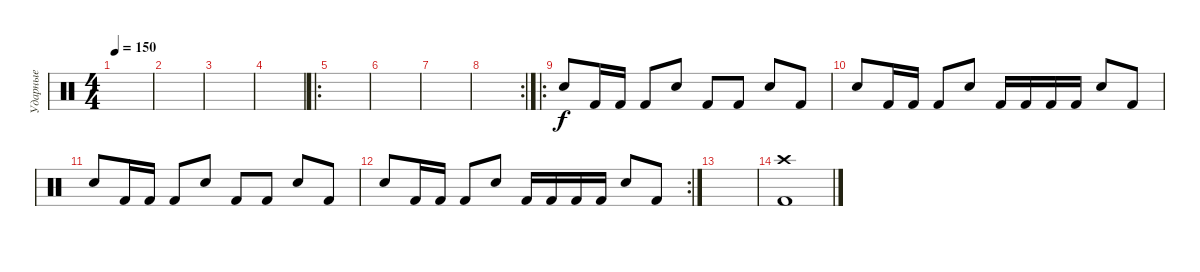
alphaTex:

\track ("Ударные" "Ударные") {instrument percussion}
\staff {score}
\articulation defaults
\ts (4 4)
\tempo 150
\clef neutral
\ks c
|
|
|
|
\ro
|
|
|
\rc 2
|
\ro "Snare (hit) 2".8 "Kick (hit) 2".16 "Kick (hit) 2".16 "Kick (hit) 2".8 "Hand Clap (hit)".8 "Kick (hit) 2".8 "Kick (hit) 2".8 "Hand Clap (hit)".8 "Kick (hit) 2".8
|
"Snare (hit) 2".8 "Kick (hit) 2".16 "Kick (hit) 2".16 "Kick (hit) 2".8 "Hand Clap (hit)".8 "Kick (hit) 2".16 "Kick (hit) 2".16 "Kick (hit) 2".16 "Kick (hit) 2".16 "Hand Clap (hit)".8 "Kick (hit) 2".8 |
"Snare (hit) 2".8 "Kick (hit) 2".16 "Kick (hit) 2".16 "Kick (hit) 2".8 "Hand Clap (hit)".8 "Kick (hit) 2".8 "Kick (hit) 2".8 "Hand Clap (hit)".8 "Kick (hit) 2".8 |
\rc 2 "Snare (hit) 2".8 "Kick (hit) 2".16 "Kick (hit) 2".16 "Kick (hit) 2".8 "Hand Clap (hit)".8 "Kick (hit) 2".16 "Kick (hit) 2".16 "Kick (hit) 2".16 "Kick (hit) 2".16 "Hand Clap (hit)".8 "Kick (hit) 2".8
|
|
("Kick (hit) 2" "Crash high (hit)").1
